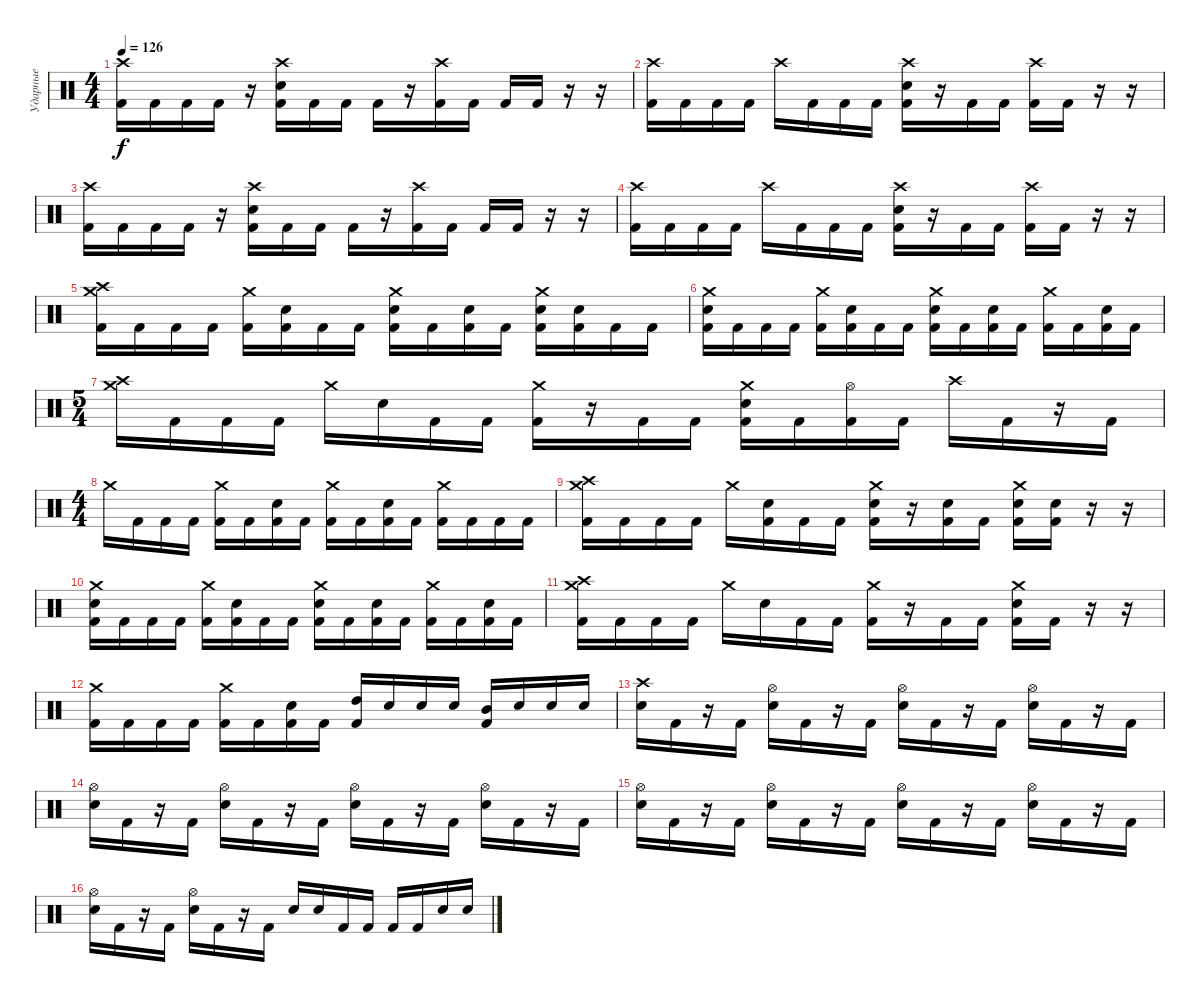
\track ("Ударные" "Ударные") {instrument percussion}
\staff {score}
\articulation defaults
\ts (4 4)
\tempo 126
\clef neutral
\ks c
("Crash high (hit)" "Kick (hit) 2").16{dy f} "Kick (hit) 2".16 "Kick (hit) 2".16 "Kick (hit) 2".16 r.16 ("Crash high (hit)" "Electric Snare (hit)" "Kick (hit) 2").16 "Kick (hit) 2".16 "Kick (hit) 2".16 "Kick (hit) 2".16 r.16 ("Crash high (hit)" "Kick (hit) 2").16 "Kick (hit) 2".16 "Kick (hit) 2".16 "Kick (hit) 2".16 r.16 r.16 |
("Crash high (hit)" "Kick (hit) 2").16 "Kick (hit) 2".16 "Kick (hit) 2".16 "Kick (hit) 2".16 "Crash high (hit)".16 "Kick (hit) 2".16 "Kick (hit) 2".16 "Kick (hit) 2".16 ("Crash high (hit)" "Electric Snare (hit)" "Kick (hit) 2").16 r.16 "Kick (hit) 2".16 "Kick (hit) 2".16 ("Crash high (hit)" "Kick (hit) 2").16 "Kick (hit) 2".16 r.16 r.16 |
("Crash high (hit)" "Kick (hit) 2").16 "Kick (hit) 2".16 "Kick (hit) 2".16 "Kick (hit) 2".16 r.16 ("Crash high (hit)" "Electric Snare (hit)" "Kick (hit) 2").16 "Kick (hit) 2".16 "Kick (hit) 2".16 "Kick (hit) 2".16 r.16 ("Crash high (hit)" "Kick (hit) 2").16 "Kick (hit) 2".16 "Kick (hit) 2".16 "Kick (hit) 2".16 r.16 r.16 |
("Crash high (hit)" "Kick (hit) 2").16 "Kick (hit) 2".16 "Kick (hit) 2".16 "Kick (hit) 2".16 "Crash high (hit)".16 "Kick (hit) 2".16 "Kick (hit) 2".16 "Kick (hit) 2".16 ("Crash high (hit)" "Electric Snare (hit)" "Kick (hit) 2").16 r.16 "Kick (hit) 2".16 "Kick (hit) 2".16 ("Crash high (hit)" "Kick (hit) 2").16 "Kick (hit) 2".16 r.16 r.16 |
("Crash medium (hit)" "Crash high (hit)" "Kick (hit) 2").16 "Kick (hit) 2".16 "Kick (hit) 2".16 "Kick (hit) 2".16 ("Crash medium (hit)" "Kick (hit) 2").16 ("Electric Snare (hit)" "Kick (hit) 2").16 "Kick (hit) 2".16 "Kick (hit) 2".16 ("Crash medium (hit)" "Electric Snare (hit)" "Kick (hit) 2").16 "Kick (hit) 2".16 ("Electric Snare (hit)" "Kick (hit) 2").16 "Kick (hit) 2".16 ("Crash medium (hit)" "Electric Snare (hit)" "Kick (hit) 2").16 ("Electric Snare (hit)" "Kick (hit) 2").16 "Kick (hit) 2".16 "Kick (hit) 2".16 |
("Crash medium (hit)" "Electric Snare (hit)" "Kick (hit) 2").16 "Kick (hit) 2".16 "Kick (hit) 2".16 "Kick (hit) 2".16 ("Crash medium (hit)" "Kick (hit) 2").16 ("Electric Snare (hit)" "Kick (hit) 2").16 "Kick (hit) 2".16 "Kick (hit) 2".16 ("Crash medium (hit)" "Electric Snare (hit)" "Kick (hit) 2").16 "Kick (hit) 2".16 ("Electric Snare (hit)" "Kick (hit) 2").16 "Kick (hit) 2".16 ("Crash medium (hit)" "Kick (hit) 2").16 "Kick (hit) 2".16 ("Electric Snare (hit)" "Kick (hit) 2").16 "Kick (hit) 2".16 |
\ts (5 4)
("Crash medium (hit)" "Crash high (hit)").16 "Kick (hit) 2".16 "Kick (hit) 2".16 "Kick (hit) 2".16 "Crash medium (hit)".16 "Electric Snare (hit)".16 "Kick (hit) 2".16 "Kick (hit) 2".16 ("Crash medium (hit)" "Kick (hit) 2").16 r.16 "Kick (hit) 2".16 "Kick (hit) 2".16 ("Crash medium (hit)" "Electric Snare (hit)" "Kick (hit) 2").16 "Kick (hit) 2".16 ("Hi-Hat (open)" "Kick (hit) 2").16 "Kick (hit) 2".16 "Crash high (hit)".16 "Kick (hit) 2".16 r.16 "Kick (hit) 2".16 |
\ts (4 4)
"Crash medium (hit)".16 "Kick (hit) 2".16 "Kick (hit) 2".16 "Kick (hit) 2".16 ("Crash medium (hit)" "Kick (hit) 2").16 "Kick (hit) 2".16 ("Electric Snare (hit)" "Kick (hit) 2").16 "Kick (hit) 2".16 ("Crash medium (hit)" "Kick (hit) 2").16 "Kick (hit) 2".16 ("Electric Snare (hit)" "Kick (hit) 2").16 "Kick (hit) 2".16 ("Crash medium (hit)" "Kick (hit) 2").16 "Kick (hit) 2".16 "Kick (hit) 2".16 "Kick (hit) 2".16 |
("Crash medium (hit)" "Crash high (hit)" "Kick (hit) 2").16 "Kick (hit) 2".16 "Kick (hit) 2".16 "Kick (hit) 2".16 "Crash medium (hit)".16 ("Electric Snare (hit)" "Kick (hit) 2").16 "Kick (hit) 2".16 "Kick (hit) 2".16 ("Crash medium (hit)" "Electric Snare (hit)" "Kick (hit) 2").16 r.16 ("Electric Snare (hit)" "Kick (hit) 2").16 "Kick (hit) 2".16 ("Crash medium (hit)" "Electric Snare (hit)" "Kick (hit) 2").16 ("Electric Snare (hit)" "Kick (hit) 2").16 r.16 r.16 |
("Crash medium (hit)" "Electric Snare (hit)" "Kick (hit) 2").16 "Kick (hit) 2".16 "Kick (hit) 2".16 "Kick (hit) 2".16 ("Crash medium (hit)" "Kick (hit) 2").16 ("Electric Snare (hit)" "Kick (hit) 2").16 "Kick (hit) 2".16 "Kick (hit) 2".16 ("Crash medium (hit)" "Electric Snare (hit)" "Kick (hit) 2").16 "Kick (hit) 2".16 ("Electric Snare (hit)" "Kick (hit) 2").16 "Kick (hit) 2".16 ("Crash medium (hit)" "Kick (hit) 2").16 "Kick (hit) 2".16 ("Electric Snare (hit)" "Kick (hit) 2").16 "Kick (hit) 2".16 |
("Crash medium (hit)" "Crash high (hit)" "Kick (hit) 2").16 "Kick (hit) 2".16 "Kick (hit) 2".16 "Kick (hit) 2".16 "Crash medium (hit)".16 "Electric Snare (hit)".16 "Kick (hit) 2".16 "Kick (hit) 2".16 ("Crash medium (hit)" "Kick (hit) 2").16 r.16 "Kick (hit) 2".16 "Kick (hit) 2".16 ("Crash medium (hit)" "Electric Snare (hit)" "Kick (hit) 2").16 "Kick (hit) 2".16 r.16 r.16 |
("Crash medium (hit)" "Kick (hit) 2").16 "Kick (hit) 2".16 "Kick (hit) 2".16 "Kick (hit) 2".16 ("Crash medium (hit)" "Kick (hit) 2").16 "Kick (hit) 2".16 ("Electric Snare (hit)" "Kick (hit) 2").16 "Kick (hit) 2".16 ("High Tom (hit)" "Kick (hit) 2").16 "Electric Snare (hit)".16 "Electric Snare (hit)".16 "Electric Snare (hit)".16 ("Mid Tom (hit)" "Kick (hit) 2").16 "Electric Snare (hit)".16 "Electric Snare (hit)".16 "Electric Snare (hit)".16 |
("Crash high (hit)" "Electric Snare (hit)").16 "Kick (hit) 2".16 r.16 "Kick (hit) 2".16 ("Hi-Hat (open)" "Electric Snare (hit)").16 "Kick (hit) 2".16 r.16 "Kick (hit) 2".16 ("Hi-Hat (open)" "Electric Snare (hit)").16 "Kick (hit) 2".16 r.16 "Kick (hit) 2".16 ("Hi-Hat (open)" "Electric Snare (hit)").16 "Kick (hit) 2".16 r.16 "Kick (hit) 2".16 |
("Hi-Hat (open)" "Electric Snare (hit)").16 "Kick (hit) 2".16 r.16 "Kick (hit) 2".16 ("Hi-Hat (open)" "Electric Snare (hit)").16 "Kick (hit) 2".16 r.16 "Kick (hit) 2".16 ("Hi-Hat (open)" "Electric Snare (hit)").16 "Kick (hit) 2".16 r.16 "Kick (hit) 2".16 ("Hi-Hat (open)" "Electric Snare (hit)").16 "Kick (hit) 2".16 r.16 "Kick (hit) 2".16 |
("Hi-Hat (open)" "Electric Snare (hit)").16 "Kick (hit) 2".16 r.16 "Kick (hit) 2".16 ("Hi-Hat (open)" "Electric Snare (hit)").16 "Kick (hit) 2".16 r.16 "Kick (hit) 2".16 ("Hi-Hat (open)" "Electric Snare (hit)").16 "Kick (hit) 2".16 r.16 "Kick (hit) 2".16 ("Hi-Hat (open)" "Electric Snare (hit)").16 "Kick (hit) 2".16 r.16 "Kick (hit) 2".16 |
("Hi-Hat (open)" "Electric Snare (hit)").16 "Kick (hit) 2".16 r.16 "Kick (hit) 2".16 ("Hi-Hat (open)" "Electric Snare (hit)").16 "Kick (hit) 2".16 r.16 "Kick (hit) 2".16 "Electric Snare (hit)".16 "Electric Snare (hit)".16 "Kick (hit) 2".16 "Kick (hit) 2".16 "Kick (hit) 2".16 "Kick (hit) 2".16 "Electric Snare (hit)".16 "Electric Snare (hit)".16
